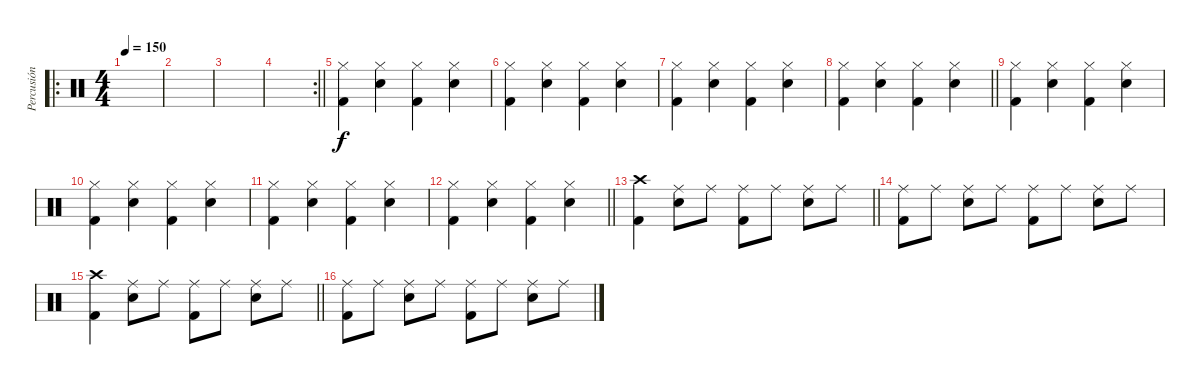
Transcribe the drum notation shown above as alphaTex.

\track ("Percusión" "Percusión") {instrument percussion}
\staff {score}
\articulation defaults
\ro
\ts (4 4)
\tempo 150
\clef neutral
\ks c
|
|
|
\rc 2
\barLineRight lightlight
|
("Hi-Hat (closed)" "Kick (hit) 2").4 ("Hi-Hat (closed)" "Snare (hit) 2").4 ("Hi-Hat (closed)" "Kick (hit) 2").4 ("Hi-Hat (closed)" "Snare (hit) 2").4 |
("Hi-Hat (closed)" "Kick (hit) 2").4 ("Hi-Hat (closed)" "Snare (hit) 2").4 ("Hi-Hat (closed)" "Kick (hit) 2").4 ("Hi-Hat (closed)" "Snare (hit) 2").4 |
("Hi-Hat (closed)" "Kick (hit) 2").4 ("Hi-Hat (closed)" "Snare (hit) 2").4 ("Hi-Hat (closed)" "Kick (hit) 2").4 ("Hi-Hat (closed)" "Snare (hit) 2").4 |
\barLineRight lightlight
("Hi-Hat (closed)" "Kick (hit) 2").4 ("Hi-Hat (closed)" "Snare (hit) 2").4 ("Hi-Hat (closed)" "Kick (hit) 2").4 ("Hi-Hat (closed)" "Snare (hit) 2").4 |
("Hi-Hat (closed)" "Kick (hit) 2").4 ("Hi-Hat (closed)" "Snare (hit) 2").4 ("Hi-Hat (closed)" "Kick (hit) 2").4 ("Hi-Hat (closed)" "Snare (hit) 2").4 |
("Hi-Hat (closed)" "Kick (hit) 2").4 ("Hi-Hat (closed)" "Snare (hit) 2").4 ("Hi-Hat (closed)" "Kick (hit) 2").4 ("Hi-Hat (closed)" "Snare (hit) 2").4 |
("Hi-Hat (closed)" "Kick (hit) 2").4 ("Hi-Hat (closed)" "Snare (hit) 2").4 ("Hi-Hat (closed)" "Kick (hit) 2").4 ("Hi-Hat (closed)" "Snare (hit) 2").4 |
\barLineRight lightlight
("Hi-Hat (closed)" "Kick (hit) 2").4 ("Hi-Hat (closed)" "Snare (hit) 2").4 ("Hi-Hat (closed)" "Kick (hit) 2").4 ("Hi-Hat (closed)" "Snare (hit) 2").4 |
\barLineRight lightlight
("Crash high (hit)" "Kick (hit) 2").4 ("Ride (middle)" "Snare (hit) 2").8 "Ride (middle)".8 ("Ride (middle)" "Kick (hit) 2").8 "Ride (middle)".8 ("Ride (middle)" "Snare (hit) 2").8 "Ride (middle)".8 |
("Ride (middle)" "Kick (hit) 2").8 "Ride (middle)".8 ("Ride (middle)" "Snare (hit) 2").8 "Ride (middle)".8 ("Ride (middle)" "Kick (hit) 2").8 "Ride (middle)".8 ("Ride (middle)" "Snare (hit) 2").8 "Ride (middle)".8 |
\barLineRight lightlight
("Crash high (hit)" "Kick (hit) 2").4 ("Ride (middle)" "Snare (hit) 2").8 "Ride (middle)".8 ("Ride (middle)" "Kick (hit) 2").8 "Ride (middle)".8 ("Ride (middle)" "Snare (hit) 2").8 "Ride (middle)".8 |
("Ride (middle)" "Kick (hit) 2").8 "Ride (middle)".8 ("Ride (middle)" "Snare (hit) 2").8 "Ride (middle)".8 ("Ride (middle)" "Kick (hit) 2").8 "Ride (middle)".8 ("Ride (middle)" "Snare (hit) 2").8 "Ride (middle)".8
